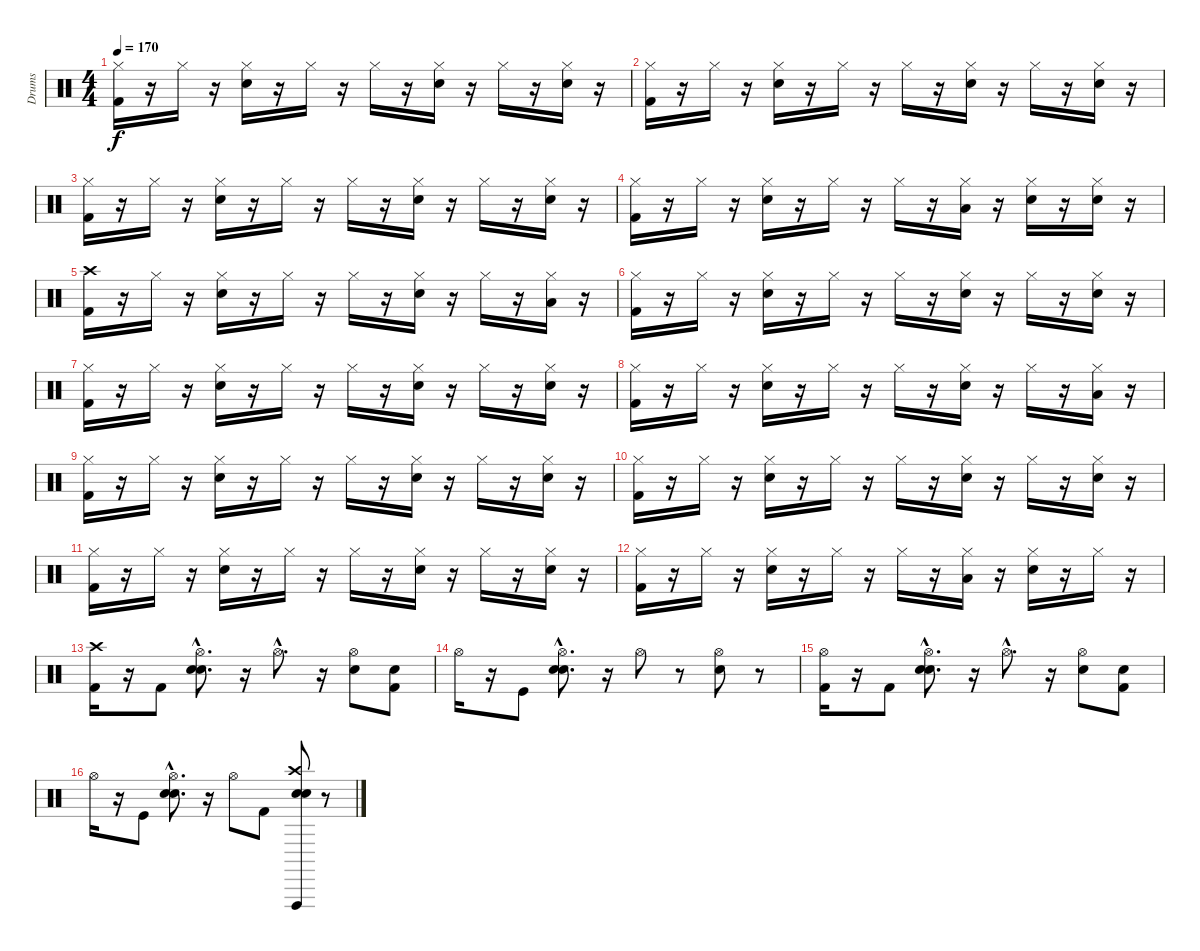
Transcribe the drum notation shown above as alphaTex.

\track ("Drums" "Drums") {instrument percussion}
\staff {score}
\articulation defaults
\ts (4 4)
\tempo 170
\clef neutral
\ks c
("Kick (hit) 2" "Hi-Hat (closed)").16{dy f} r.16 "Hi-Hat (closed)".16 r.16 ("Electric Snare (hit)" "Hi-Hat (closed)").16 r.16 "Hi-Hat (closed)".16 r.16 "Hi-Hat (closed)".16 r.16 ("Electric Snare (hit)" "Hi-Hat (closed)").16 r.16 "Hi-Hat (closed)".16 r.16 ("Electric Snare (hit)" "Hi-Hat (closed)").16 r.16 |
("Kick (hit) 2" "Hi-Hat (closed)").16 r.16 "Hi-Hat (closed)".16 r.16 ("Electric Snare (hit)" "Hi-Hat (closed)").16 r.16 "Hi-Hat (closed)".16 r.16 "Hi-Hat (closed)".16 r.16 ("Electric Snare (hit)" "Hi-Hat (closed)").16 r.16 "Hi-Hat (closed)".16 r.16 ("Electric Snare (hit)" "Hi-Hat (closed)").16 r.16 |
("Kick (hit) 2" "Hi-Hat (closed)").16 r.16 "Hi-Hat (closed)".16 r.16 ("Electric Snare (hit)" "Hi-Hat (closed)").16 r.16 "Hi-Hat (closed)".16 r.16 "Hi-Hat (closed)".16 r.16 ("Electric Snare (hit)" "Hi-Hat (closed)").16 r.16 "Hi-Hat (closed)".16 r.16 ("Electric Snare (hit)" "Hi-Hat (closed)").16 r.16 |
("Kick (hit) 2" "Hi-Hat (closed)").16 r.16 "Hi-Hat (closed)".16 r.16 ("Electric Snare (hit)" "Hi-Hat (closed)").16 r.16 "Hi-Hat (closed)".16 r.16 "Hi-Hat (closed)".16 r.16 ("Low Floor Tom (hit)" "Hi-Hat (closed)").16 r.16 ("Electric Snare (hit)" "Hi-Hat (closed)").16 r.16 ("Electric Snare (hit)" "Hi-Hat (closed)").16 r.16 |
("Kick (hit) 2" "Crash high (hit)").16 r.16 "Hi-Hat (closed)".16 r.16 ("Electric Snare (hit)" "Hi-Hat (closed)").16 r.16 "Hi-Hat (closed)".16 r.16 "Hi-Hat (closed)".16 r.16 ("Electric Snare (hit)" "Hi-Hat (closed)").16 r.16 "Hi-Hat (closed)".16 r.16 ("Low Floor Tom (hit)" "Hi-Hat (closed)").16 r.16 |
("Kick (hit) 2" "Hi-Hat (closed)").16 r.16 "Hi-Hat (closed)".16 r.16 ("Electric Snare (hit)" "Hi-Hat (closed)").16 r.16 "Hi-Hat (closed)".16 r.16 "Hi-Hat (closed)".16 r.16 ("Electric Snare (hit)" "Hi-Hat (closed)").16 r.16 "Hi-Hat (closed)".16 r.16 ("Electric Snare (hit)" "Hi-Hat (closed)").16 r.16 |
("Kick (hit) 2" "Hi-Hat (closed)").16 r.16 "Hi-Hat (closed)".16 r.16 ("Electric Snare (hit)" "Hi-Hat (closed)").16 r.16 "Hi-Hat (closed)".16 r.16 "Hi-Hat (closed)".16 r.16 ("Electric Snare (hit)" "Hi-Hat (closed)").16 r.16 "Hi-Hat (closed)".16 r.16 ("Electric Snare (hit)" "Hi-Hat (closed)").16 r.16 |
("Kick (hit) 2" "Hi-Hat (closed)").16 r.16 "Hi-Hat (closed)".16 r.16 ("Electric Snare (hit)" "Hi-Hat (closed)").16 r.16 "Hi-Hat (closed)".16 r.16 "Hi-Hat (closed)".16 r.16 ("Electric Snare (hit)" "Hi-Hat (closed)").16 r.16 "Hi-Hat (closed)".16 r.16 ("Low Floor Tom (hit)" "Hi-Hat (closed)").16 r.16 |
("Kick (hit) 2" "Hi-Hat (closed)").16 r.16 "Hi-Hat (closed)".16 r.16 ("Electric Snare (hit)" "Hi-Hat (closed)").16 r.16 "Hi-Hat (closed)".16 r.16 "Hi-Hat (closed)".16 r.16 ("Electric Snare (hit)" "Hi-Hat (closed)").16 r.16 "Hi-Hat (closed)".16 r.16 ("Electric Snare (hit)" "Hi-Hat (closed)").16 r.16 |
("Kick (hit) 2" "Hi-Hat (closed)").16 r.16 "Hi-Hat (closed)".16 r.16 ("Electric Snare (hit)" "Hi-Hat (closed)").16 r.16 "Hi-Hat (closed)".16 r.16 "Hi-Hat (closed)".16 r.16 ("Electric Snare (hit)" "Hi-Hat (closed)").16 r.16 "Hi-Hat (closed)".16 r.16 ("Electric Snare (hit)" "Hi-Hat (closed)").16 r.16 |
("Kick (hit) 2" "Hi-Hat (closed)").16 r.16 "Hi-Hat (closed)".16 r.16 ("Electric Snare (hit)" "Hi-Hat (closed)").16 r.16 "Hi-Hat (closed)".16 r.16 "Hi-Hat (closed)".16 r.16 ("Electric Snare (hit)" "Hi-Hat (closed)").16 r.16 "Hi-Hat (closed)".16 r.16 ("Electric Snare (hit)" "Hi-Hat (closed)").16 r.16 |
("Kick (hit) 2" "Hi-Hat (closed)").16 r.16 "Hi-Hat (closed)".16 r.16 ("Electric Snare (hit)" "Hi-Hat (closed)").16 r.16 "Hi-Hat (closed)".16 r.16 "Hi-Hat (closed)".16 r.16 ("Low Floor Tom (hit)" "Hi-Hat (closed)").16 r.16 ("Electric Snare (hit)" "Hi-Hat (closed)").16 r.16 "Hi-Hat (closed)".16 r.16 |
("Kick (hit) 2" "Crash high (hit)").16 r.16 "Kick (hit) 2".8 ("Snare (hit)"{hac} "Electric Snare (hit)"{hac} "Hi-Hat (open)"{hac}).8{d} r.16 "Hi-Hat (open)"{hac}.8{d} r.16 ("Electric Snare (hit)" "Hi-Hat (open)").8 ("Snare (hit)" "Kick (hit) 2").8 |
"Hi-Hat (open)".16 r.16 "Kick (hit)".8 ("Snare (hit)"{hac} "Electric Snare (hit)"{hac} "Hi-Hat (open)"{hac}).8{d} r.16 "Hi-Hat (open)".8 r.8 ("Electric Snare (hit)" "Hi-Hat (open)").8 r.8 |
("Kick (hit) 2" "Hi-Hat (open)").16 r.16 "Kick (hit) 2".8 ("Snare (hit)"{hac} "Electric Snare (hit)"{hac} "Hi-Hat (open)"{hac}).8{d} r.16 "Hi-Hat (open)"{hac}.8{d} r.16 ("Electric Snare (hit)" "Hi-Hat (open)").8 ("Snare (hit)" "Kick (hit) 2").8 |
"Hi-Hat (open)".16 r.16 "Kick (hit)".8 ("Snare (hit)"{hac} "Electric Snare (hit)"{hac} "Hi-Hat (open)"{hac}).8{d} r.16 "Hi-Hat (open)".8 "Kick (hit) 2".8 ("Snare (hit)" "Electric Snare (hit)" "Crash high (hit)" "Vibraslap (hit)").8 r.8
